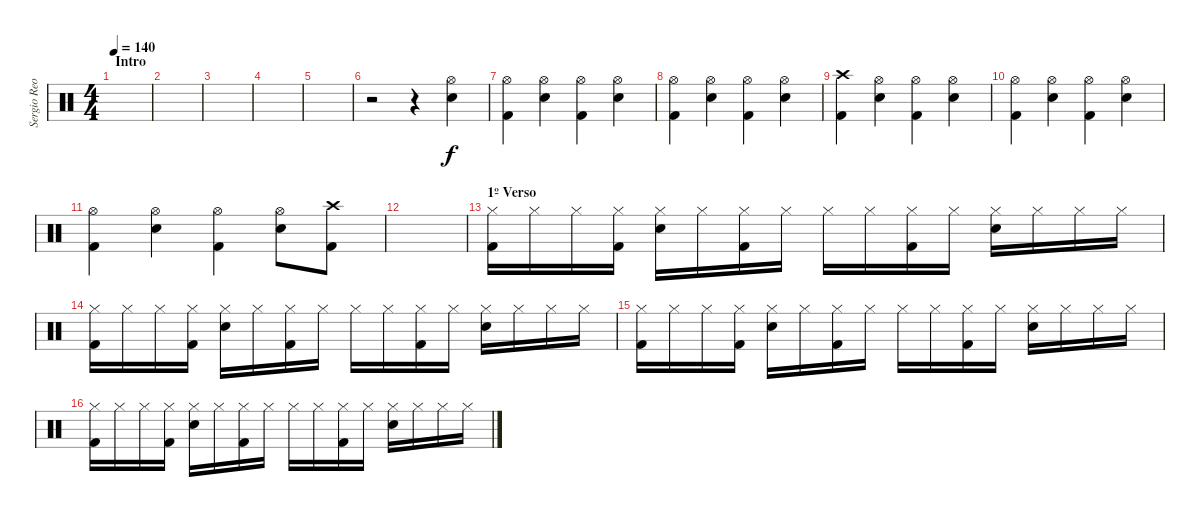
\track ("Sergio Reoli" "Sergio Reo") {instrument percussion}
\staff {score}
\articulation defaults
\ts (4 4)
\section ("" "Intro")
\tempo 140
\clef neutral
\ks c
|
|
|
|
|
r.2 r.4 ("Hi-Hat (open)" "Electric Snare (hit)").4 |
("Hi-Hat (open)" "Kick (hit) 2").4 ("Hi-Hat (open)" "Electric Snare (hit)").4 ("Hi-Hat (open)" "Kick (hit) 2").4 ("Hi-Hat (open)" "Electric Snare (hit)").4 |
("Hi-Hat (open)" "Kick (hit) 2").4 ("Hi-Hat (open)" "Electric Snare (hit)").4 ("Hi-Hat (open)" "Kick (hit) 2").4 ("Hi-Hat (open)" "Electric Snare (hit)").4 |
("Crash high (hit)" "Kick (hit) 2").4 ("Hi-Hat (open)" "Electric Snare (hit)").4 ("Hi-Hat (open)" "Kick (hit) 2").4 ("Hi-Hat (open)" "Electric Snare (hit)").4 |
("Hi-Hat (open)" "Kick (hit) 2").4 ("Hi-Hat (open)" "Electric Snare (hit)").4 ("Hi-Hat (open)" "Kick (hit) 2").4 ("Hi-Hat (open)" "Electric Snare (hit)").4 |
("Hi-Hat (open)" "Kick (hit) 2").4 ("Hi-Hat (open)" "Electric Snare (hit)").4 ("Hi-Hat (open)" "Kick (hit) 2").4 ("Hi-Hat (open)" "Electric Snare (hit)").8 ("Crash high (hit)" "Kick (hit) 2").8 |
|
\section ("" "1º Verso")
("Hi-Hat (closed)" "Kick (hit) 2").16 "Hi-Hat (closed)".16 "Hi-Hat (closed)".16 ("Hi-Hat (closed)" "Kick (hit) 2").16 ("Hi-Hat (closed)" "Electric Snare (hit)").16 "Hi-Hat (closed)".16 ("Hi-Hat (closed)" "Kick (hit) 2").16 "Hi-Hat (closed)".16 "Hi-Hat (closed)".16 "Hi-Hat (closed)".16 ("Hi-Hat (closed)" "Kick (hit) 2").16 "Hi-Hat (closed)".16 ("Hi-Hat (closed)" "Electric Snare (hit)").16 "Hi-Hat (closed)".16 "Hi-Hat (closed)".16 "Hi-Hat (closed)".16 |
("Hi-Hat (closed)" "Kick (hit) 2").16 "Hi-Hat (closed)".16 "Hi-Hat (closed)".16 ("Hi-Hat (closed)" "Kick (hit) 2").16 ("Hi-Hat (closed)" "Electric Snare (hit)").16 "Hi-Hat (closed)".16 ("Hi-Hat (closed)" "Kick (hit) 2").16 "Hi-Hat (closed)".16 "Hi-Hat (closed)".16 "Hi-Hat (closed)".16 ("Hi-Hat (closed)" "Kick (hit) 2").16 "Hi-Hat (closed)".16 ("Hi-Hat (closed)" "Electric Snare (hit)").16 "Hi-Hat (closed)".16 "Hi-Hat (closed)".16 "Hi-Hat (closed)".16 |
("Hi-Hat (closed)" "Kick (hit) 2").16 "Hi-Hat (closed)".16 "Hi-Hat (closed)".16 ("Hi-Hat (closed)" "Kick (hit) 2").16 ("Hi-Hat (closed)" "Electric Snare (hit)").16 "Hi-Hat (closed)".16 ("Hi-Hat (closed)" "Kick (hit) 2").16 "Hi-Hat (closed)".16 "Hi-Hat (closed)".16 "Hi-Hat (closed)".16 ("Hi-Hat (closed)" "Kick (hit) 2").16 "Hi-Hat (closed)".16 ("Hi-Hat (closed)" "Electric Snare (hit)").16 "Hi-Hat (closed)".16 "Hi-Hat (closed)".16 "Hi-Hat (closed)".16 |
("Hi-Hat (closed)" "Kick (hit) 2").16 "Hi-Hat (closed)".16 "Hi-Hat (closed)".16 ("Hi-Hat (closed)" "Kick (hit) 2").16 ("Hi-Hat (closed)" "Electric Snare (hit)").16 "Hi-Hat (closed)".16 ("Hi-Hat (closed)" "Kick (hit) 2").16 "Hi-Hat (closed)".16 "Hi-Hat (closed)".16 "Hi-Hat (closed)".16 ("Hi-Hat (closed)" "Kick (hit) 2").16 "Hi-Hat (closed)".16 ("Hi-Hat (closed)" "Electric Snare (hit)").16 "Hi-Hat (closed)".16 "Hi-Hat (closed)".16 "Hi-Hat (closed)".16
